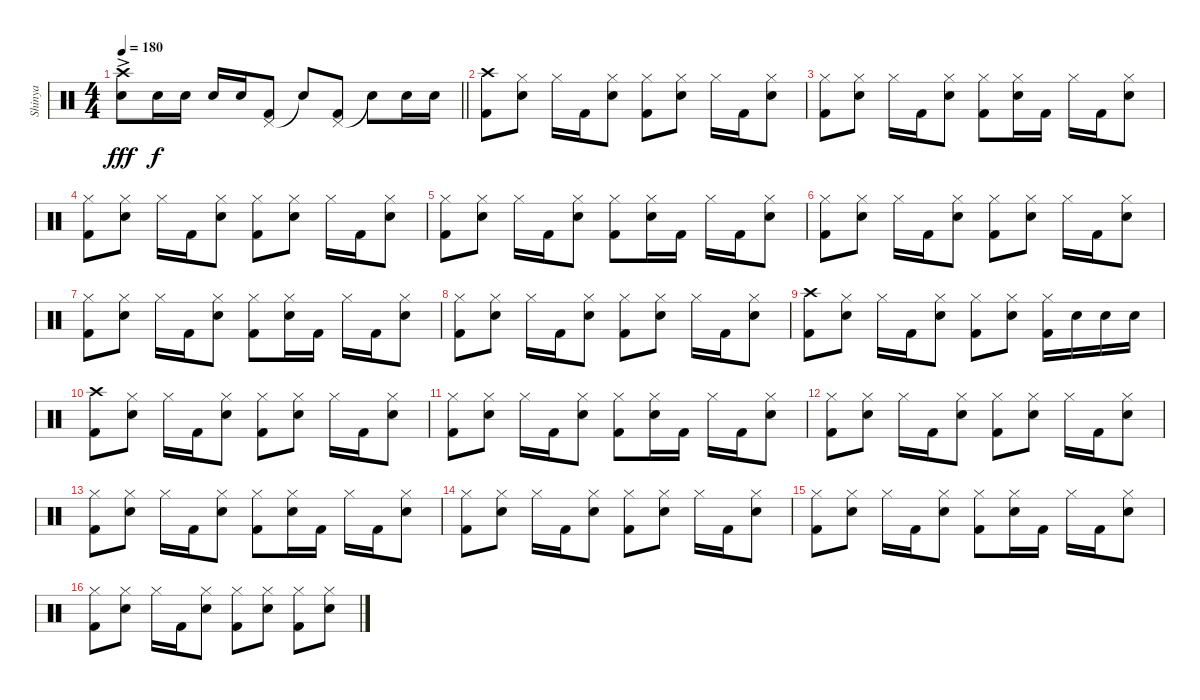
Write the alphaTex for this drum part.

\track ("Shinya" "Shinya") {instrument percussion}
\staff {score}
\articulation defaults
\ts (4 4)
\tempo 180
\clef neutral
\barLineRight lightlight
\ks c
("Crash high (hit)"{ac} "Electric Snare (hit)").8{dy fff} "Electric Snare (hit)".16{dy f} "Electric Snare (hit)".16 "Electric Snare (hit)".16 "Electric Snare (hit)".16 ("Pedal Hi-Hat (hit)" "Kick (hit) 2").8 "Snare (hit)"{t}.8 ("Pedal Hi-Hat (hit)" "Kick (hit) 2").8 "Snare (hit)"{t}.8 "Electric Snare (hit)".16 "Electric Snare (hit)".16 |
("Crash high (hit)" "Kick (hit) 2").8 ("Hi-Hat (closed)" "Electric Snare (hit)").8 "Hi-Hat (closed)".16 "Kick (hit) 2".16 ("Hi-Hat (closed)" "Electric Snare (hit)").8 ("Hi-Hat (closed)" "Kick (hit) 2").8 ("Hi-Hat (closed)" "Electric Snare (hit)").8 "Hi-Hat (closed)".16 "Kick (hit) 2".16 ("Hi-Hat (closed)" "Electric Snare (hit)").8 |
("Hi-Hat (closed)" "Kick (hit) 2").8 ("Hi-Hat (closed)" "Electric Snare (hit)").8 "Hi-Hat (closed)".16 "Kick (hit) 2".16 ("Hi-Hat (closed)" "Electric Snare (hit)").8 ("Hi-Hat (closed)" "Kick (hit) 2").8 ("Hi-Hat (closed)" "Electric Snare (hit)").16 "Kick (hit) 2".16 "Hi-Hat (closed)".16 "Kick (hit) 2".16 ("Hi-Hat (closed)" "Electric Snare (hit)").8 |
("Hi-Hat (closed)" "Kick (hit) 2").8 ("Hi-Hat (closed)" "Electric Snare (hit)").8 "Hi-Hat (closed)".16 "Kick (hit) 2".16 ("Hi-Hat (closed)" "Electric Snare (hit)").8 ("Hi-Hat (closed)" "Kick (hit) 2").8 ("Hi-Hat (closed)" "Electric Snare (hit)").8 "Hi-Hat (closed)".16 "Kick (hit) 2".16 ("Hi-Hat (closed)" "Electric Snare (hit)").8 |
("Hi-Hat (closed)" "Kick (hit) 2").8 ("Hi-Hat (closed)" "Electric Snare (hit)").8 "Hi-Hat (closed)".16 "Kick (hit) 2".16 ("Hi-Hat (closed)" "Electric Snare (hit)").8 ("Hi-Hat (closed)" "Kick (hit) 2").8 ("Hi-Hat (closed)" "Electric Snare (hit)").16 "Kick (hit) 2".16 "Hi-Hat (closed)".16 "Kick (hit) 2".16 ("Hi-Hat (closed)" "Electric Snare (hit)").8 |
("Hi-Hat (closed)" "Kick (hit) 2").8 ("Hi-Hat (closed)" "Electric Snare (hit)").8 "Hi-Hat (closed)".16 "Kick (hit) 2".16 ("Hi-Hat (closed)" "Electric Snare (hit)").8 ("Hi-Hat (closed)" "Kick (hit) 2").8 ("Hi-Hat (closed)" "Electric Snare (hit)").8 "Hi-Hat (closed)".16 "Kick (hit) 2".16 ("Hi-Hat (closed)" "Electric Snare (hit)").8 |
("Hi-Hat (closed)" "Kick (hit) 2").8 ("Hi-Hat (closed)" "Electric Snare (hit)").8 "Hi-Hat (closed)".16 "Kick (hit) 2".16 ("Hi-Hat (closed)" "Electric Snare (hit)").8 ("Hi-Hat (closed)" "Kick (hit) 2").8 ("Hi-Hat (closed)" "Electric Snare (hit)").16 "Kick (hit) 2".16 "Hi-Hat (closed)".16 "Kick (hit) 2".16 ("Hi-Hat (closed)" "Electric Snare (hit)").8 |
("Hi-Hat (closed)" "Kick (hit) 2").8 ("Hi-Hat (closed)" "Electric Snare (hit)").8 "Hi-Hat (closed)".16 "Kick (hit) 2".16 ("Hi-Hat (closed)" "Electric Snare (hit)").8 ("Hi-Hat (closed)" "Kick (hit) 2").8 ("Hi-Hat (closed)" "Electric Snare (hit)").8 "Hi-Hat (closed)".16 "Kick (hit) 2".16 ("Hi-Hat (closed)" "Electric Snare (hit)").8 |
("Crash high (hit)" "Kick (hit) 2").8 ("Hi-Hat (closed)" "Electric Snare (hit)").8 "Hi-Hat (closed)".16 "Kick (hit) 2".16 ("Hi-Hat (closed)" "Electric Snare (hit)").8 ("Hi-Hat (closed)" "Kick (hit) 2").8 ("Hi-Hat (closed)" "Electric Snare (hit)").8 ("Hi-Hat (closed)" "Kick (hit) 2").16 "Electric Snare (hit)".16 "Electric Snare (hit)".16 "Electric Snare (hit)".16 |
("Crash high (hit)" "Kick (hit) 2").8 ("Hi-Hat (closed)" "Electric Snare (hit)").8 "Hi-Hat (closed)".16 "Kick (hit) 2".16 ("Hi-Hat (closed)" "Electric Snare (hit)").8 ("Hi-Hat (closed)" "Kick (hit) 2").8 ("Hi-Hat (closed)" "Electric Snare (hit)").8 "Hi-Hat (closed)".16 "Kick (hit) 2".16 ("Hi-Hat (closed)" "Electric Snare (hit)").8 |
("Hi-Hat (closed)" "Kick (hit) 2").8 ("Hi-Hat (closed)" "Electric Snare (hit)").8 "Hi-Hat (closed)".16 "Kick (hit) 2".16 ("Hi-Hat (closed)" "Electric Snare (hit)").8 ("Hi-Hat (closed)" "Kick (hit) 2").8 ("Hi-Hat (closed)" "Electric Snare (hit)").16 "Kick (hit) 2".16 "Hi-Hat (closed)".16 "Kick (hit) 2".16 ("Hi-Hat (closed)" "Electric Snare (hit)").8 |
("Hi-Hat (closed)" "Kick (hit) 2").8 ("Hi-Hat (closed)" "Electric Snare (hit)").8 "Hi-Hat (closed)".16 "Kick (hit) 2".16 ("Hi-Hat (closed)" "Electric Snare (hit)").8 ("Hi-Hat (closed)" "Kick (hit) 2").8 ("Hi-Hat (closed)" "Electric Snare (hit)").8 "Hi-Hat (closed)".16 "Kick (hit) 2".16 ("Hi-Hat (closed)" "Electric Snare (hit)").8 |
("Hi-Hat (closed)" "Kick (hit) 2").8 ("Hi-Hat (closed)" "Electric Snare (hit)").8 "Hi-Hat (closed)".16 "Kick (hit) 2".16 ("Hi-Hat (closed)" "Electric Snare (hit)").8 ("Hi-Hat (closed)" "Kick (hit) 2").8 ("Hi-Hat (closed)" "Electric Snare (hit)").16 "Kick (hit) 2".16 "Hi-Hat (closed)".16 "Kick (hit) 2".16 ("Hi-Hat (closed)" "Electric Snare (hit)").8 |
("Hi-Hat (closed)" "Kick (hit) 2").8 ("Hi-Hat (closed)" "Electric Snare (hit)").8 "Hi-Hat (closed)".16 "Kick (hit) 2".16 ("Hi-Hat (closed)" "Electric Snare (hit)").8 ("Hi-Hat (closed)" "Kick (hit) 2").8 ("Hi-Hat (closed)" "Electric Snare (hit)").8 "Hi-Hat (closed)".16 "Kick (hit) 2".16 ("Hi-Hat (closed)" "Electric Snare (hit)").8 |
("Hi-Hat (closed)" "Kick (hit) 2").8 ("Hi-Hat (closed)" "Electric Snare (hit)").8 "Hi-Hat (closed)".16 "Kick (hit) 2".16 ("Hi-Hat (closed)" "Electric Snare (hit)").8 ("Hi-Hat (closed)" "Kick (hit) 2").8 ("Hi-Hat (closed)" "Electric Snare (hit)").16 "Kick (hit) 2".16 "Hi-Hat (closed)".16 "Kick (hit) 2".16 ("Hi-Hat (closed)" "Electric Snare (hit)").8 |
("Hi-Hat (closed)" "Kick (hit) 2").8 ("Hi-Hat (closed)" "Electric Snare (hit)").8 "Hi-Hat (closed)".16 "Kick (hit) 2".16 ("Hi-Hat (closed)" "Electric Snare (hit)").8 ("Hi-Hat (closed)" "Kick (hit) 2").8 ("Hi-Hat (closed)" "Electric Snare (hit)").8 ("Hi-Hat (closed)" "Kick (hit) 2").8 ("Hi-Hat (closed)" "Electric Snare (hit)").8
